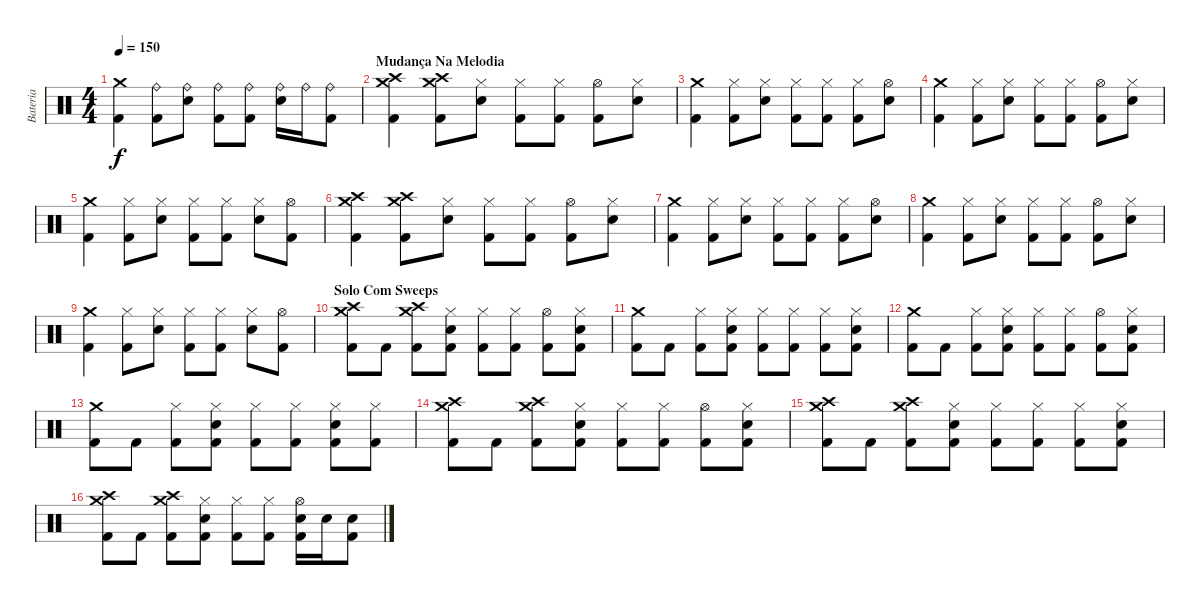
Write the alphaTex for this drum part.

\track ("Bateria" "Bateria") {instrument percussion}
\staff {score}
\articulation defaults
\ts (4 4)
\tempo 150
\clef neutral
\ks c
("Kick (hit) 2" "Crash medium (hit)").4{dy f} ("Kick (hit) 2" "Ride (bell)").8 ("Electric Snare (hit)" "Ride (bell)").8 ("Kick (hit) 2" "Ride (bell)").8 ("Kick (hit) 2" "Ride (bell)").8 ("Electric Snare (hit)" "Ride (bell)").16 "Ride (bell)".16 ("Kick (hit) 2" "Ride (bell)").8 |
\section ("" "Mudança Na Melodia")
("Kick (hit) 2" "Crash medium (hit)" "Crash high (hit)").4 ("Kick (hit) 2" "Crash medium (hit)" "Crash high (hit)").8 ("Electric Snare (hit)" "Hi-Hat (closed)").8 ("Kick (hit) 2" "Hi-Hat (closed)").8 ("Kick (hit) 2" "Hi-Hat (closed)").8 ("Kick (hit) 2" "Hi-Hat (open)").8 ("Electric Snare (hit)" "Hi-Hat (closed)").8 |
("Kick (hit) 2" "Crash medium (hit)").4 ("Kick (hit) 2" "Hi-Hat (closed)").8 ("Electric Snare (hit)" "Hi-Hat (closed)").8 ("Kick (hit) 2" "Hi-Hat (closed)").8 ("Kick (hit) 2" "Hi-Hat (closed)").8 ("Kick (hit) 2" "Hi-Hat (closed)").8 ("Electric Snare (hit)" "Hi-Hat (open)").8 |
("Kick (hit) 2" "Crash medium (hit)").4 ("Kick (hit) 2" "Hi-Hat (closed)").8 ("Electric Snare (hit)" "Hi-Hat (closed)").8 ("Kick (hit) 2" "Hi-Hat (closed)").8 ("Kick (hit) 2" "Hi-Hat (closed)").8 ("Kick (hit) 2" "Hi-Hat (open)").8 ("Electric Snare (hit)" "Hi-Hat (closed)").8 |
("Kick (hit) 2" "Crash medium (hit)").4 ("Kick (hit) 2" "Hi-Hat (closed)").8 ("Electric Snare (hit)" "Hi-Hat (closed)").8 ("Kick (hit) 2" "Hi-Hat (closed)").8 ("Kick (hit) 2" "Hi-Hat (closed)").8 ("Electric Snare (hit)" "Hi-Hat (closed)").8 ("Kick (hit) 2" "Hi-Hat (open)").8 |
("Kick (hit) 2" "Crash medium (hit)" "Crash high (hit)").4 ("Kick (hit) 2" "Crash medium (hit)" "Crash high (hit)").8 ("Electric Snare (hit)" "Hi-Hat (closed)").8 ("Kick (hit) 2" "Hi-Hat (closed)").8 ("Kick (hit) 2" "Hi-Hat (closed)").8 ("Kick (hit) 2" "Hi-Hat (open)").8 ("Electric Snare (hit)" "Hi-Hat (closed)").8 |
("Kick (hit) 2" "Crash medium (hit)").4 ("Kick (hit) 2" "Hi-Hat (closed)").8 ("Electric Snare (hit)" "Hi-Hat (closed)").8 ("Kick (hit) 2" "Hi-Hat (closed)").8 ("Kick (hit) 2" "Hi-Hat (closed)").8 ("Kick (hit) 2" "Hi-Hat (closed)").8 ("Electric Snare (hit)" "Hi-Hat (open)").8 |
("Kick (hit) 2" "Crash medium (hit)").4 ("Kick (hit) 2" "Hi-Hat (closed)").8 ("Electric Snare (hit)" "Hi-Hat (closed)").8 ("Kick (hit) 2" "Hi-Hat (closed)").8 ("Kick (hit) 2" "Hi-Hat (closed)").8 ("Kick (hit) 2" "Hi-Hat (open)").8 ("Electric Snare (hit)" "Hi-Hat (closed)").8 |
("Kick (hit) 2" "Crash medium (hit)").4 ("Kick (hit) 2" "Hi-Hat (closed)").8 ("Electric Snare (hit)" "Hi-Hat (closed)").8 ("Kick (hit) 2" "Hi-Hat (closed)").8 ("Kick (hit) 2" "Hi-Hat (closed)").8 ("Electric Snare (hit)" "Hi-Hat (closed)").8 ("Kick (hit) 2" "Hi-Hat (open)").8 |
\section ("" "Solo Com Sweeps")
("Kick (hit) 2" "Crash medium (hit)" "Crash high (hit)").8 "Kick (hit) 2".8 ("Kick (hit) 2" "Crash medium (hit)" "Crash high (hit)").8 ("Kick (hit) 2" "Electric Snare (hit)" "Hi-Hat (closed)").8 ("Kick (hit) 2" "Hi-Hat (closed)").8 ("Kick (hit) 2" "Hi-Hat (closed)").8 ("Kick (hit) 2" "Hi-Hat (open)").8 ("Kick (hit) 2" "Electric Snare (hit)" "Hi-Hat (closed)").8 |
("Kick (hit) 2" "Crash medium (hit)").8 "Kick (hit) 2".8 ("Kick (hit) 2" "Hi-Hat (closed)").8 ("Kick (hit) 2" "Electric Snare (hit)" "Hi-Hat (closed)").8 ("Kick (hit) 2" "Hi-Hat (closed)").8 ("Kick (hit) 2" "Hi-Hat (closed)").8 ("Kick (hit) 2" "Hi-Hat (closed)").8 ("Kick (hit) 2" "Electric Snare (hit)" "Hi-Hat (closed)").8 |
("Kick (hit) 2" "Crash medium (hit)").8 "Kick (hit) 2".8 ("Kick (hit) 2" "Hi-Hat (closed)").8 ("Kick (hit) 2" "Electric Snare (hit)" "Hi-Hat (closed)").8 ("Kick (hit) 2" "Hi-Hat (closed)").8 ("Kick (hit) 2" "Hi-Hat (closed)").8 ("Kick (hit) 2" "Hi-Hat (open)").8 ("Kick (hit) 2" "Electric Snare (hit)" "Hi-Hat (closed)").8 |
("Kick (hit) 2" "Crash medium (hit)").8 "Kick (hit) 2".8 ("Kick (hit) 2" "Hi-Hat (closed)").8 ("Kick (hit) 2" "Electric Snare (hit)" "Hi-Hat (closed)").8 ("Kick (hit) 2" "Hi-Hat (closed)").8 ("Kick (hit) 2" "Hi-Hat (closed)").8 ("Kick (hit) 2" "Electric Snare (hit)" "Hi-Hat (closed)").8 ("Kick (hit) 2" "Hi-Hat (closed)").8 |
("Kick (hit) 2" "Crash medium (hit)" "Crash high (hit)").8 "Kick (hit) 2".8 ("Kick (hit) 2" "Crash medium (hit)" "Crash high (hit)").8 ("Kick (hit) 2" "Electric Snare (hit)" "Hi-Hat (closed)").8 ("Kick (hit) 2" "Hi-Hat (closed)").8 ("Kick (hit) 2" "Hi-Hat (closed)").8 ("Kick (hit) 2" "Hi-Hat (open)").8 ("Kick (hit) 2" "Electric Snare (hit)" "Hi-Hat (closed)").8 |
("Kick (hit) 2" "Crash medium (hit)" "Crash high (hit)").8 "Kick (hit) 2".8 ("Kick (hit) 2" "Crash medium (hit)" "Crash high (hit)").8 ("Kick (hit) 2" "Electric Snare (hit)" "Hi-Hat (closed)").8 ("Kick (hit) 2" "Hi-Hat (closed)").8 ("Kick (hit) 2" "Hi-Hat (closed)").8 ("Kick (hit) 2" "Hi-Hat (closed)").8 ("Kick (hit) 2" "Electric Snare (hit)" "Hi-Hat (closed)").8 |
("Kick (hit) 2" "Crash medium (hit)" "Crash high (hit)").8 "Kick (hit) 2".8 ("Kick (hit) 2" "Crash medium (hit)" "Crash high (hit)").8 ("Kick (hit) 2" "Electric Snare (hit)" "Hi-Hat (closed)").8 ("Kick (hit) 2" "Hi-Hat (closed)").8 ("Kick (hit) 2" "Hi-Hat (closed)").8 ("Kick (hit) 2" "Electric Snare (hit)" "Hi-Hat (open)").16 "Electric Snare (hit)".16 ("Kick (hit) 2" "Electric Snare (hit)").8
